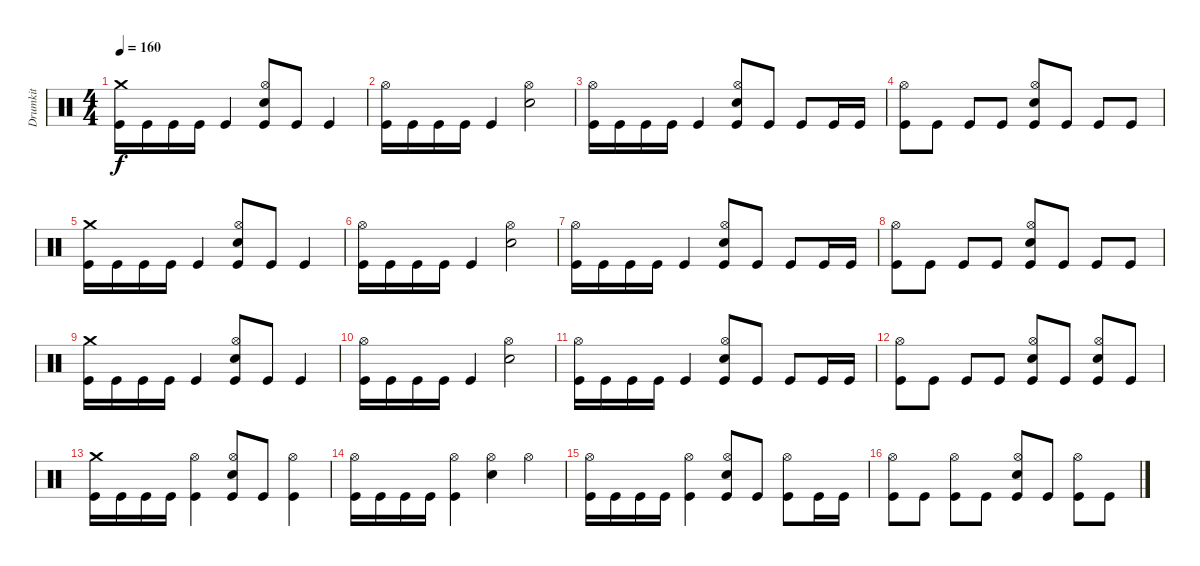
\track ("Drumkit" "Drumkit") {instrument percussion}
\staff {score}
\articulation defaults
\ts (4 4)
\tempo 160
\clef neutral
\ks c
("Crash medium (hit)" "Kick (hit)").16{dy f} "Kick (hit)".16 "Kick (hit)".16 "Kick (hit)".16 "Kick (hit)".4 ("Hi-Hat (open)" "Snare (hit) 2" "Kick (hit)").8 "Kick (hit)".8 "Kick (hit)".4 |
("Hi-Hat (open)" "Kick (hit)").16 "Kick (hit)".16 "Kick (hit)".16 "Kick (hit)".16 "Kick (hit)".4 ("Hi-Hat (open)" "Snare (hit) 2").2 |
("Hi-Hat (open)" "Kick (hit)").16 "Kick (hit)".16 "Kick (hit)".16 "Kick (hit)".16 "Kick (hit)".4 ("Hi-Hat (open)" "Snare (hit) 2" "Kick (hit)").8 "Kick (hit)".8 "Kick (hit)".8 "Kick (hit)".16 "Kick (hit)".16 |
("Hi-Hat (open)" "Kick (hit)").8 "Kick (hit)".8 "Kick (hit)".8 "Kick (hit)".8 ("Hi-Hat (open)" "Snare (hit) 2" "Kick (hit)").8 "Kick (hit)".8 "Kick (hit)".8 "Kick (hit)".8 |
("Crash medium (hit)" "Kick (hit)").16 "Kick (hit)".16 "Kick (hit)".16 "Kick (hit)".16 "Kick (hit)".4 ("Hi-Hat (open)" "Snare (hit) 2" "Kick (hit)").8 "Kick (hit)".8 "Kick (hit)".4 |
("Hi-Hat (open)" "Kick (hit)").16 "Kick (hit)".16 "Kick (hit)".16 "Kick (hit)".16 "Kick (hit)".4 ("Hi-Hat (open)" "Snare (hit) 2").2 |
("Hi-Hat (open)" "Kick (hit)").16 "Kick (hit)".16 "Kick (hit)".16 "Kick (hit)".16 "Kick (hit)".4 ("Hi-Hat (open)" "Snare (hit) 2" "Kick (hit)").8 "Kick (hit)".8 "Kick (hit)".8 "Kick (hit)".16 "Kick (hit)".16 |
("Hi-Hat (open)" "Kick (hit)").8 "Kick (hit)".8 "Kick (hit)".8 "Kick (hit)".8 ("Hi-Hat (open)" "Snare (hit) 2" "Kick (hit)").8 "Kick (hit)".8 "Kick (hit)".8 "Kick (hit)".8 |
("Crash medium (hit)" "Kick (hit)").16 "Kick (hit)".16 "Kick (hit)".16 "Kick (hit)".16 "Kick (hit)".4 ("Hi-Hat (open)" "Snare (hit) 2" "Kick (hit)").8 "Kick (hit)".8 "Kick (hit)".4 |
("Hi-Hat (open)" "Kick (hit)").16 "Kick (hit)".16 "Kick (hit)".16 "Kick (hit)".16 "Kick (hit)".4 ("Hi-Hat (open)" "Snare (hit) 2").2 |
("Hi-Hat (open)" "Kick (hit)").16 "Kick (hit)".16 "Kick (hit)".16 "Kick (hit)".16 "Kick (hit)".4 ("Hi-Hat (open)" "Snare (hit) 2" "Kick (hit)").8 "Kick (hit)".8 "Kick (hit)".8 "Kick (hit)".16 "Kick (hit)".16 |
("Hi-Hat (open)" "Kick (hit)").8 "Kick (hit)".8 "Kick (hit)".8 "Kick (hit)".8 ("Hi-Hat (open)" "Snare (hit) 2" "Kick (hit)").8 "Kick (hit)".8 ("Hi-Hat (open)" "Snare (hit) 2" "Kick (hit)").8 "Kick (hit)".8 |
("Crash medium (hit)" "Kick (hit)").16 "Kick (hit)".16 "Kick (hit)".16 "Kick (hit)".16 ("Hi-Hat (open)" "Kick (hit)").4 ("Hi-Hat (open)" "Snare (hit) 2" "Kick (hit)").8 "Kick (hit)".8 ("Hi-Hat (open)" "Kick (hit)").4 |
("Hi-Hat (open)" "Kick (hit)").16 "Kick (hit)".16 "Kick (hit)".16 "Kick (hit)".16 ("Hi-Hat (open)" "Kick (hit)").4 ("Hi-Hat (open)" "Snare (hit) 2").4 "Hi-Hat (open)".4 |
("Hi-Hat (open)" "Kick (hit)").16 "Kick (hit)".16 "Kick (hit)".16 "Kick (hit)".16 ("Hi-Hat (open)" "Kick (hit)").4 ("Hi-Hat (open)" "Snare (hit) 2" "Kick (hit)").8 "Kick (hit)".8 ("Hi-Hat (open)" "Kick (hit)").8 "Kick (hit)".16 "Kick (hit)".16 |
("Hi-Hat (open)" "Kick (hit)").8 "Kick (hit)".8 ("Hi-Hat (open)" "Kick (hit)").8 "Kick (hit)".8 ("Hi-Hat (open)" "Snare (hit) 2" "Kick (hit)").8 "Kick (hit)".8 ("Hi-Hat (open)" "Kick (hit)").8 "Kick (hit)".8
